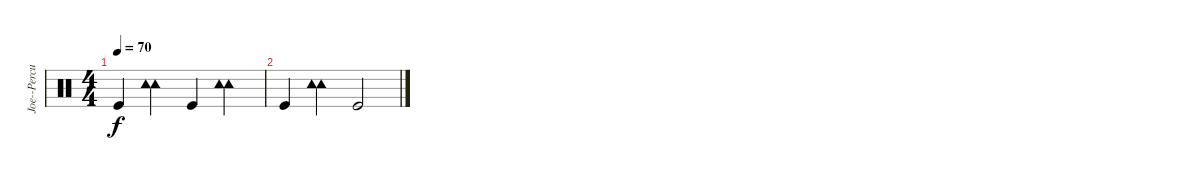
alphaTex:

\track ("Joe--Percussion" "Joe--Percu") {instrument percussion}
\staff {score}
\articulation defaults
\ts (4 4)
\tempo 70
\clef neutral
\ks c "Kick (hit)".4{dy f}
("Tambourine (hit)" "Tambourine (hit)").4 "Kick (hit)".4 ("Tambourine (hit)" "Tambourine (hit)").4 |
"Kick (hit)".4 ("Tambourine (hit)" "Tambourine (hit)").4 "Kick (hit)".2
